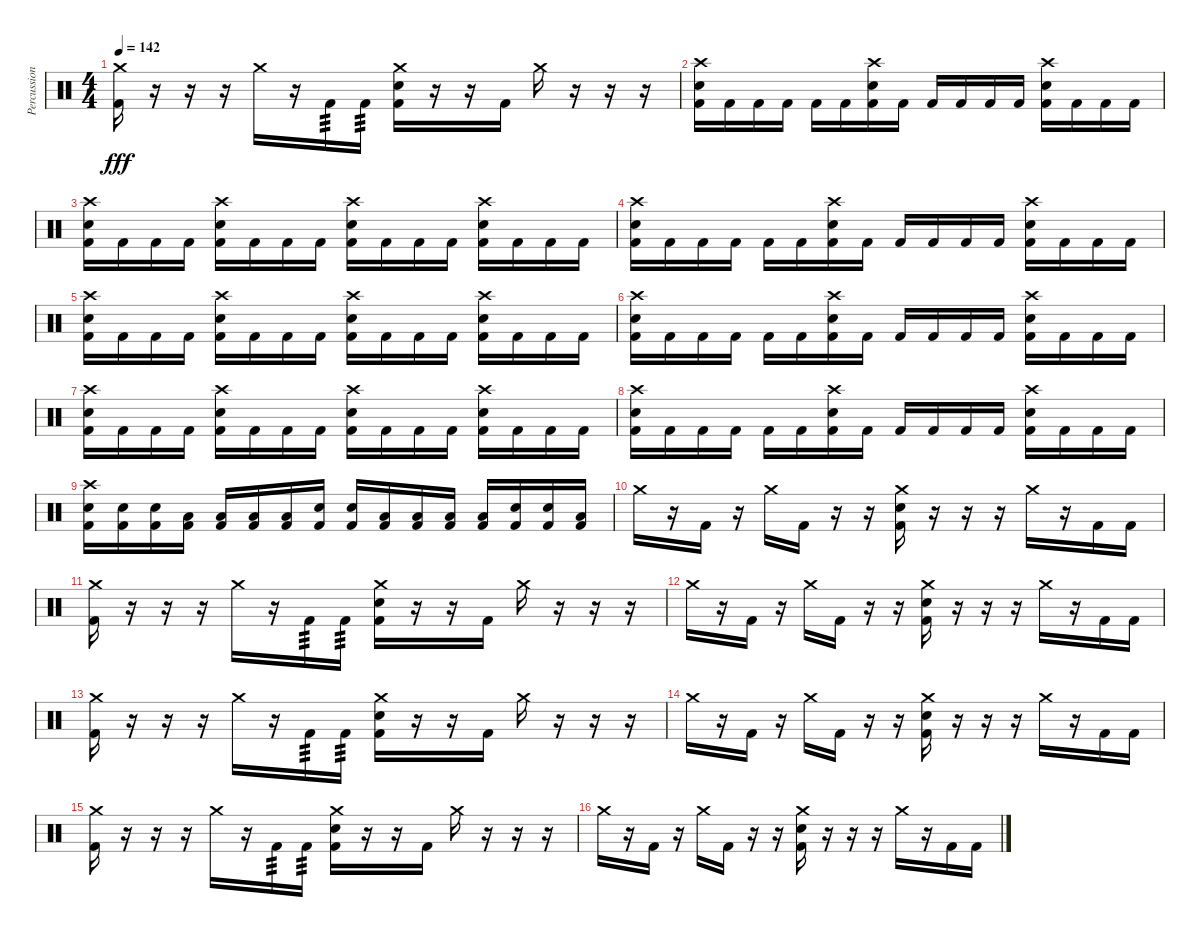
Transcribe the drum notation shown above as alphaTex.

\track ("Percussion" "Percussion") {instrument percussion}
\staff {score}
\articulation defaults
\ts (4 4)
\tempo 142
\clef neutral
\ks c
("Crash medium (hit)" "Kick (hit) 2").16{dy fff} r.16 r.16 r.16 "Crash medium (hit)".16 r.16 "Kick (hit) 2".16{tp 3} "Kick (hit) 2".16{tp 3} ("Crash medium (hit)" "Electric Snare (hit)" "Kick (hit) 2").16 r.16 r.16 "Kick (hit) 2".16 "Crash medium (hit)".16 r.16 r.16 r.16 |
("Crash high (hit)" "Electric Snare (hit)" "Kick (hit) 2").16 "Kick (hit) 2".16 "Kick (hit) 2".16 "Kick (hit) 2".16 "Kick (hit) 2".16 "Kick (hit) 2".16 ("Crash high (hit)" "Electric Snare (hit)" "Kick (hit) 2").16 "Kick (hit) 2".16 "Kick (hit) 2".16 "Kick (hit) 2".16 "Kick (hit) 2".16 "Kick (hit) 2".16 ("Crash high (hit)" "Electric Snare (hit)" "Kick (hit) 2").16 "Kick (hit) 2".16 "Kick (hit) 2".16 "Kick (hit) 2".16 |
("Crash high (hit)" "Electric Snare (hit)" "Kick (hit) 2").16 "Kick (hit) 2".16 "Kick (hit) 2".16 "Kick (hit) 2".16 ("Crash high (hit)" "Electric Snare (hit)" "Kick (hit) 2").16 "Kick (hit) 2".16 "Kick (hit) 2".16 "Kick (hit) 2".16 ("Crash high (hit)" "Electric Snare (hit)" "Kick (hit) 2").16 "Kick (hit) 2".16 "Kick (hit) 2".16 "Kick (hit) 2".16 ("Crash high (hit)" "Electric Snare (hit)" "Kick (hit) 2").16 "Kick (hit) 2".16 "Kick (hit) 2".16 "Kick (hit) 2".16 |
("Crash high (hit)" "Electric Snare (hit)" "Kick (hit) 2").16 "Kick (hit) 2".16 "Kick (hit) 2".16 "Kick (hit) 2".16 "Kick (hit) 2".16 "Kick (hit) 2".16 ("Crash high (hit)" "Electric Snare (hit)" "Kick (hit) 2").16 "Kick (hit) 2".16 "Kick (hit) 2".16 "Kick (hit) 2".16 "Kick (hit) 2".16 "Kick (hit) 2".16 ("Crash high (hit)" "Electric Snare (hit)" "Kick (hit) 2").16 "Kick (hit) 2".16 "Kick (hit) 2".16 "Kick (hit) 2".16 |
("Crash high (hit)" "Electric Snare (hit)" "Kick (hit) 2").16 "Kick (hit) 2".16 "Kick (hit) 2".16 "Kick (hit) 2".16 ("Crash high (hit)" "Electric Snare (hit)" "Kick (hit) 2").16 "Kick (hit) 2".16 "Kick (hit) 2".16 "Kick (hit) 2".16 ("Crash high (hit)" "Electric Snare (hit)" "Kick (hit) 2").16 "Kick (hit) 2".16 "Kick (hit) 2".16 "Kick (hit) 2".16 ("Crash high (hit)" "Electric Snare (hit)" "Kick (hit) 2").16 "Kick (hit) 2".16 "Kick (hit) 2".16 "Kick (hit) 2".16 |
("Crash high (hit)" "Electric Snare (hit)" "Kick (hit) 2").16 "Kick (hit) 2".16 "Kick (hit) 2".16 "Kick (hit) 2".16 "Kick (hit) 2".16 "Kick (hit) 2".16 ("Crash high (hit)" "Electric Snare (hit)" "Kick (hit) 2").16 "Kick (hit) 2".16 "Kick (hit) 2".16 "Kick (hit) 2".16 "Kick (hit) 2".16 "Kick (hit) 2".16 ("Crash high (hit)" "Electric Snare (hit)" "Kick (hit) 2").16 "Kick (hit) 2".16 "Kick (hit) 2".16 "Kick (hit) 2".16 |
("Crash high (hit)" "Electric Snare (hit)" "Kick (hit) 2").16 "Kick (hit) 2".16 "Kick (hit) 2".16 "Kick (hit) 2".16 ("Crash high (hit)" "Electric Snare (hit)" "Kick (hit) 2").16 "Kick (hit) 2".16 "Kick (hit) 2".16 "Kick (hit) 2".16 ("Crash high (hit)" "Electric Snare (hit)" "Kick (hit) 2").16 "Kick (hit) 2".16 "Kick (hit) 2".16 "Kick (hit) 2".16 ("Crash high (hit)" "Electric Snare (hit)" "Kick (hit) 2").16 "Kick (hit) 2".16 "Kick (hit) 2".16 "Kick (hit) 2".16 |
("Crash high (hit)" "Electric Snare (hit)" "Kick (hit) 2").16 "Kick (hit) 2".16 "Kick (hit) 2".16 "Kick (hit) 2".16 "Kick (hit) 2".16 "Kick (hit) 2".16 ("Crash high (hit)" "Electric Snare (hit)" "Kick (hit) 2").16 "Kick (hit) 2".16 "Kick (hit) 2".16 "Kick (hit) 2".16 "Kick (hit) 2".16 "Kick (hit) 2".16 ("Crash high (hit)" "Electric Snare (hit)" "Kick (hit) 2").16 "Kick (hit) 2".16 "Kick (hit) 2".16 "Kick (hit) 2".16 |
("Crash high (hit)" "Electric Snare (hit)" "Kick (hit) 2").16 ("Electric Snare (hit)" "Kick (hit) 2").16 ("Electric Snare (hit)" "Kick (hit) 2").16 ("Low Floor Tom (hit)" "Kick (hit) 2").16 ("Low Floor Tom (hit)" "Kick (hit) 2").16 ("Low Tom (hit)" "Kick (hit) 2").16 ("Low Tom (hit)" "Kick (hit) 2").16 ("Electric Snare (hit)" "Kick (hit) 2").16 ("Electric Snare (hit)" "Kick (hit) 2").16 ("Low Floor Tom (hit)" "Kick (hit) 2").16 ("Low Floor Tom (hit)" "Kick (hit) 2").16 ("Low Tom (hit)" "Kick (hit) 2").16 ("Low Tom (hit)" "Kick (hit) 2").16 ("Electric Snare (hit)" "Kick (hit) 2").16 ("Electric Snare (hit)" "Kick (hit) 2").16 ("Low Floor Tom (hit)" "Kick (hit) 2").16 |
"Crash medium (hit)".16 r.16 "Kick (hit) 2".16 r.16 "Crash medium (hit)".16 "Kick (hit) 2".16 r.16 r.16 ("Crash medium (hit)" "Electric Snare (hit)" "Kick (hit) 2").16 r.16 r.16 r.16 "Crash medium (hit)".16 r.16 "Kick (hit) 2".16 "Kick (hit) 2".16 |
("Crash medium (hit)" "Kick (hit) 2").16 r.16 r.16 r.16 "Crash medium (hit)".16 r.16 "Kick (hit) 2".16{tp 3} "Kick (hit) 2".16{tp 3} ("Crash medium (hit)" "Electric Snare (hit)" "Kick (hit) 2").16 r.16 r.16 "Kick (hit) 2".16 "Crash medium (hit)".16 r.16 r.16 r.16 |
"Crash medium (hit)".16 r.16 "Kick (hit) 2".16 r.16 "Crash medium (hit)".16 "Kick (hit) 2".16 r.16 r.16 ("Crash medium (hit)" "Electric Snare (hit)" "Kick (hit) 2").16 r.16 r.16 r.16 "Crash medium (hit)".16 r.16 "Kick (hit) 2".16 "Kick (hit) 2".16 |
("Crash medium (hit)" "Kick (hit) 2").16 r.16 r.16 r.16 "Crash medium (hit)".16 r.16 "Kick (hit) 2".16{tp 3} "Kick (hit) 2".16{tp 3} ("Crash medium (hit)" "Electric Snare (hit)" "Kick (hit) 2").16 r.16 r.16 "Kick (hit) 2".16 "Crash medium (hit)".16 r.16 r.16 r.16 |
"Crash medium (hit)".16 r.16 "Kick (hit) 2".16 r.16 "Crash medium (hit)".16 "Kick (hit) 2".16 r.16 r.16 ("Crash medium (hit)" "Electric Snare (hit)" "Kick (hit) 2").16 r.16 r.16 r.16 "Crash medium (hit)".16 r.16 "Kick (hit) 2".16 "Kick (hit) 2".16 |
("Crash medium (hit)" "Kick (hit) 2").16 r.16 r.16 r.16 "Crash medium (hit)".16 r.16 "Kick (hit) 2".16{tp 3} "Kick (hit) 2".16{tp 3} ("Crash medium (hit)" "Electric Snare (hit)" "Kick (hit) 2").16 r.16 r.16 "Kick (hit) 2".16 "Crash medium (hit)".16 r.16 r.16 r.16 |
"Crash medium (hit)".16 r.16 "Kick (hit) 2".16 r.16 "Crash medium (hit)".16 "Kick (hit) 2".16 r.16 r.16 ("Crash medium (hit)" "Electric Snare (hit)" "Kick (hit) 2").16 r.16 r.16 r.16 "Crash medium (hit)".16 r.16 "Kick (hit) 2".16 "Kick (hit) 2".16
